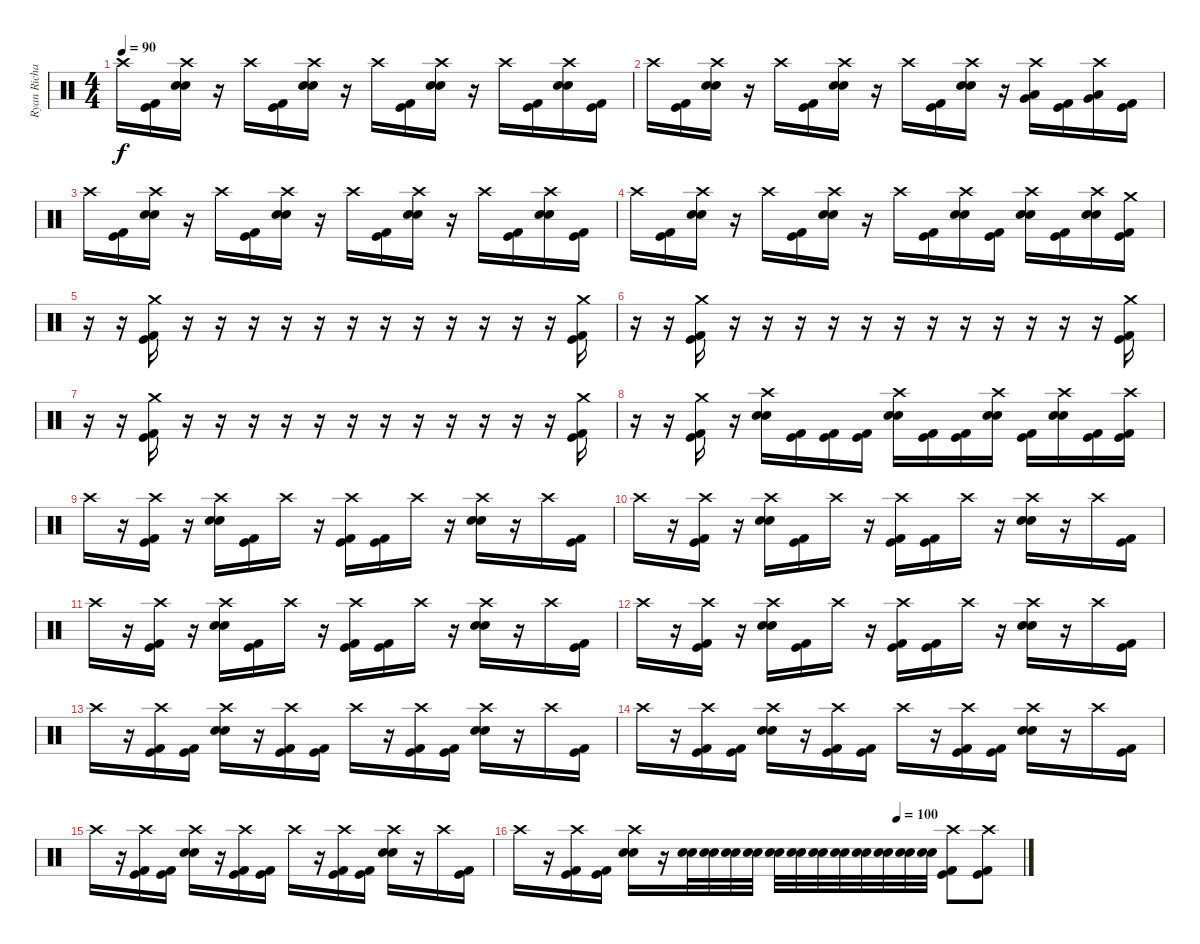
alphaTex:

\track ("Ryan Richards" "Ryan Richa") {instrument percussion}
\staff {score}
\articulation defaults
\ts (4 4)
\tempo 90
\clef neutral
\ks c "Crash high (hit)".16{dy f}
("Kick (hit)" "Kick (hit) 2").16 ("Snare (hit) 2" "Crash high (hit)" "Electric Snare (hit)").16 r.16 "Crash high (hit)".16 ("Kick (hit)" "Kick (hit) 2").16 ("Snare (hit) 2" "Crash high (hit)" "Electric Snare (hit)").16 r.16 "Crash high (hit)".16 ("Kick (hit)" "Kick (hit) 2").16 ("Snare (hit) 2" "Crash high (hit)" "Electric Snare (hit)").16 r.16 "Crash high (hit)".16 ("Kick (hit)" "Kick (hit) 2").16 ("Snare (hit) 2" "Crash high (hit)" "Electric Snare (hit)").16 ("Kick (hit)" "Kick (hit) 2").16 |
"Crash high (hit)".16 ("Kick (hit)" "Kick (hit) 2").16 ("Snare (hit) 2" "Crash high (hit)" "Electric Snare (hit)").16 r.16 "Crash high (hit)".16 ("Kick (hit)" "Kick (hit) 2").16 ("Snare (hit) 2" "Crash high (hit)" "Electric Snare (hit)").16 r.16 "Crash high (hit)".16 ("Kick (hit)" "Kick (hit) 2").16 ("Snare (hit) 2" "Crash high (hit)" "Electric Snare (hit)").16 r.16 ("Very Low Tom (hit)" "Crash high (hit)" "Low Floor Tom (hit)").16 ("Kick (hit)" "Kick (hit) 2").16 ("Low Tom (hit)" "Crash high (hit)" "Very Low Tom (hit)").16 ("Kick (hit)" "Kick (hit) 2").16 |
"Crash high (hit)".16 ("Kick (hit)" "Kick (hit) 2").16 ("Snare (hit) 2" "Crash high (hit)" "Electric Snare (hit)").16 r.16 "Crash high (hit)".16 ("Kick (hit)" "Kick (hit) 2").16 ("Snare (hit) 2" "Crash high (hit)" "Electric Snare (hit)").16 r.16 "Crash high (hit)".16 ("Kick (hit)" "Kick (hit) 2").16 ("Snare (hit) 2" "Crash high (hit)" "Electric Snare (hit)").16 r.16 "Crash high (hit)".16 ("Kick (hit)" "Kick (hit) 2").16 ("Snare (hit) 2" "Crash high (hit)" "Electric Snare (hit)").16 ("Kick (hit)" "Kick (hit) 2").16 |
"Crash high (hit)".16 ("Kick (hit)" "Kick (hit) 2").16 ("Snare (hit) 2" "Crash high (hit)" "Electric Snare (hit)").16 r.16 "Crash high (hit)".16 ("Kick (hit)" "Kick (hit) 2").16 ("Snare (hit) 2" "Crash high (hit)" "Electric Snare (hit)").16 r.16 "Crash high (hit)".16 ("Kick (hit)" "Kick (hit) 2").16 ("Snare (hit) 2" "Crash high (hit)" "Electric Snare (hit)").16 ("Kick (hit)" "Kick (hit) 2").16 ("Snare (hit) 2" "Crash high (hit)" "Electric Snare (hit)").16 ("Kick (hit)" "Kick (hit) 2").16 ("Snare (hit) 2" "Crash high (hit)" "Electric Snare (hit)").16 ("Kick (hit)" "Crash medium (hit)" "Kick (hit) 2").16 |
r.16 r.16 ("Kick (hit)" "Crash medium (hit)" "Kick (hit) 2").16 r.16 r.16 r.16 r.16 r.16 r.16 r.16 r.16 r.16 r.16 r.16 r.16 ("Kick (hit)" "Crash medium (hit)" "Kick (hit) 2").16 |
r.16 r.16 ("Kick (hit)" "Crash medium (hit)" "Kick (hit) 2").16 r.16 r.16 r.16 r.16 r.16 r.16 r.16 r.16 r.16 r.16 r.16 r.16 ("Kick (hit)" "Crash medium (hit)" "Kick (hit) 2").16 |
r.16 r.16 ("Kick (hit)" "Crash medium (hit)" "Kick (hit) 2").16 r.16 r.16 r.16 r.16 r.16 r.16 r.16 r.16 r.16 r.16 r.16 r.16 ("Kick (hit)" "Crash medium (hit)" "Kick (hit) 2").16 |
r.16 r.16 ("Kick (hit)" "Crash medium (hit)" "Kick (hit) 2").16 r.16 ("Snare (hit) 2" "Crash high (hit)" "Electric Snare (hit)").16 ("Kick (hit)" "Kick (hit) 2").16 ("Kick (hit)" "Kick (hit) 2").16 ("Kick (hit)" "Kick (hit) 2").16 ("Snare (hit) 2" "Crash high (hit)" "Electric Snare (hit)").16 ("Kick (hit)" "Kick (hit) 2").16 ("Kick (hit)" "Kick (hit) 2").16 ("Snare (hit) 2" "Crash high (hit)" "Electric Snare (hit)").16 ("Kick (hit)" "Kick (hit) 2").16 ("Snare (hit) 2" "Crash high (hit)" "Electric Snare (hit)").16 ("Kick (hit)" "Kick (hit) 2").16 ("Kick (hit)" "Crash high (hit)" "Kick (hit) 2").16 |
"Crash high (hit)".16 r.16 ("Kick (hit)" "Crash high (hit)" "Kick (hit) 2").16 r.16 ("Snare (hit) 2" "Crash high (hit)" "Electric Snare (hit)").16 ("Kick (hit)" "Kick (hit) 2").16 "Crash high (hit)".16 r.16 ("Kick (hit)" "Crash high (hit)" "Kick (hit) 2").16 ("Kick (hit)" "Kick (hit) 2").16 "Crash high (hit)".16 r.16 ("Snare (hit) 2" "Crash high (hit)" "Electric Snare (hit)").16 r.16 "Crash high (hit)".16 ("Kick (hit)" "Kick (hit) 2").16 |
"Crash high (hit)".16 r.16 ("Kick (hit)" "Crash high (hit)" "Kick (hit) 2").16 r.16 ("Snare (hit) 2" "Crash high (hit)" "Electric Snare (hit)").16 ("Kick (hit)" "Kick (hit) 2").16 "Crash high (hit)".16 r.16 ("Kick (hit)" "Crash high (hit)" "Kick (hit) 2").16 ("Kick (hit)" "Kick (hit) 2").16 "Crash high (hit)".16 r.16 ("Snare (hit) 2" "Crash high (hit)" "Electric Snare (hit)").16 r.16 "Crash high (hit)".16 ("Kick (hit)" "Kick (hit) 2").16 |
"Crash high (hit)".16 r.16 ("Kick (hit)" "Crash high (hit)" "Kick (hit) 2").16 r.16 ("Snare (hit) 2" "Crash high (hit)" "Electric Snare (hit)").16 ("Kick (hit)" "Kick (hit) 2").16 "Crash high (hit)".16 r.16 ("Kick (hit)" "Crash high (hit)" "Kick (hit) 2").16 ("Kick (hit)" "Kick (hit) 2").16 "Crash high (hit)".16 r.16 ("Snare (hit) 2" "Crash high (hit)" "Electric Snare (hit)").16 r.16 "Crash high (hit)".16 ("Kick (hit)" "Kick (hit) 2").16 |
"Crash high (hit)".16 r.16 ("Kick (hit)" "Crash high (hit)" "Kick (hit) 2").16 r.16 ("Snare (hit) 2" "Crash high (hit)" "Electric Snare (hit)").16 ("Kick (hit)" "Kick (hit) 2").16 "Crash high (hit)".16 r.16 ("Kick (hit)" "Crash high (hit)" "Kick (hit) 2").16 ("Kick (hit)" "Kick (hit) 2").16 "Crash high (hit)".16 r.16 ("Snare (hit) 2" "Crash high (hit)" "Electric Snare (hit)").16 r.16 "Crash high (hit)".16 ("Kick (hit)" "Kick (hit) 2").16 |
"Crash high (hit)".16 r.16 ("Kick (hit)" "Crash high (hit)" "Kick (hit) 2").16 ("Kick (hit)" "Kick (hit) 2").16 ("Snare (hit) 2" "Crash high (hit)" "Electric Snare (hit)").16 r.16 ("Kick (hit)" "Crash high (hit)" "Kick (hit) 2").16 ("Kick (hit)" "Kick (hit) 2").16 "Crash high (hit)".16 r.16 ("Kick (hit)" "Crash high (hit)" "Kick (hit) 2").16 ("Kick (hit)" "Kick (hit) 2").16 ("Snare (hit) 2" "Crash high (hit)" "Electric Snare (hit)").16 r.16 "Crash high (hit)".16 ("Kick (hit)" "Kick (hit) 2").16 |
"Crash high (hit)".16 r.16 ("Kick (hit)" "Crash high (hit)" "Kick (hit) 2").16 ("Kick (hit)" "Kick (hit) 2").16 ("Snare (hit) 2" "Crash high (hit)" "Electric Snare (hit)").16 r.16 ("Kick (hit)" "Crash high (hit)" "Kick (hit) 2").16 ("Kick (hit)" "Kick (hit) 2").16 "Crash high (hit)".16 r.16 ("Kick (hit)" "Crash high (hit)" "Kick (hit) 2").16 ("Kick (hit)" "Kick (hit) 2").16 ("Snare (hit) 2" "Crash high (hit)" "Electric Snare (hit)").16 r.16 "Crash high (hit)".16 ("Kick (hit)" "Kick (hit) 2").16 |
"Crash high (hit)".16 r.16 ("Kick (hit)" "Crash high (hit)" "Kick (hit) 2").16 ("Kick (hit)" "Kick (hit) 2").16 ("Snare (hit) 2" "Crash high (hit)" "Electric Snare (hit)").16 r.16 ("Kick (hit)" "Crash high (hit)" "Kick (hit) 2").16 ("Kick (hit)" "Kick (hit) 2").16 "Crash high (hit)".16 r.16 ("Kick (hit)" "Crash high (hit)" "Kick (hit) 2").16 ("Kick (hit)" "Kick (hit) 2").16 ("Snare (hit) 2" "Crash high (hit)" "Electric Snare (hit)").16 r.16 "Crash high (hit)".16 ("Kick (hit)" "Kick (hit) 2").16 |
\tempo (100 0.75)
"Crash high (hit)".16 r.16 ("Kick (hit)" "Crash high (hit)" "Kick (hit) 2").16 ("Kick (hit)" "Kick (hit) 2").16 ("Snare (hit) 2" "Crash high (hit)" "Electric Snare (hit)").16 r.16 ("Snare (hit) 2" "Electric Snare (hit)").32 ("Snare (hit) 2" "Electric Snare (hit)").32 ("Snare (hit) 2" "Electric Snare (hit)").32 ("Snare (hit) 2" "Electric Snare (hit)").32 ("Snare (hit) 2" "Electric Snare (hit)").32 ("Snare (hit) 2" "Electric Snare (hit)").32 ("Snare (hit) 2" "Electric Snare (hit)").32 ("Snare (hit) 2" "Electric Snare (hit)").32 ("Snare (hit) 2" "Electric Snare (hit)").32 ("Snare (hit) 2" "Electric Snare (hit)").32 ("Snare (hit) 2" "Electric Snare (hit)").32 ("Snare (hit) 2" "Electric Snare (hit)").32 ("Kick (hit)" "Crash high (hit)" "Kick (hit) 2").8 ("Kick (hit)" "Crash high (hit)" "Kick (hit) 2").8
